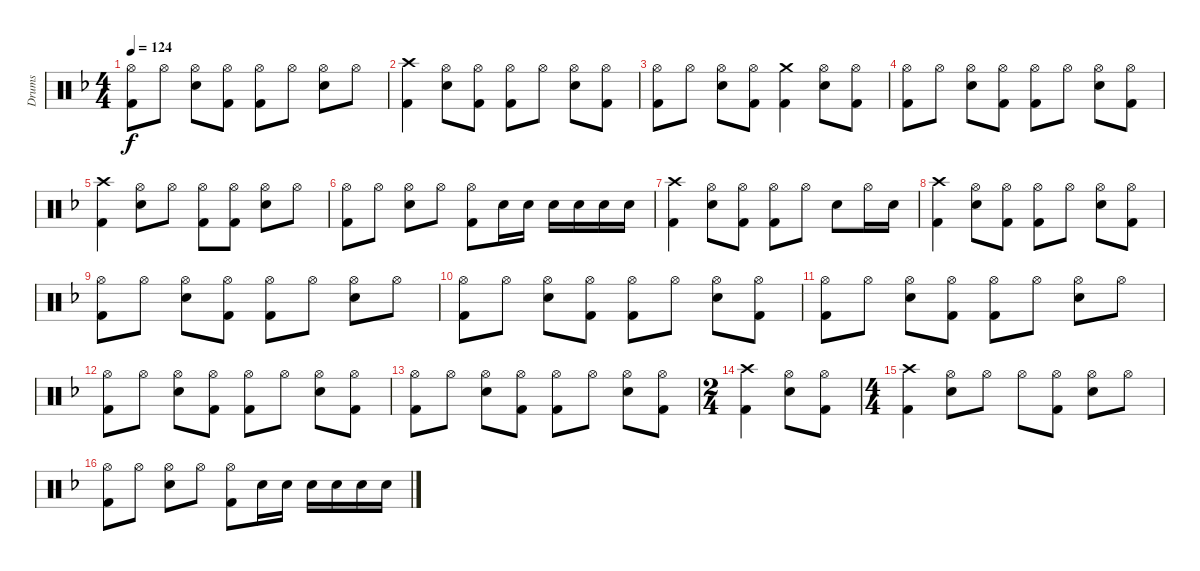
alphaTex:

\track ("Drums" "Drums") {instrument percussion}
\staff {score}
\articulation defaults
\ts (4 4)
\tempo 124
\clef neutral
\ks dminor
("Kick (hit) 2" "Hi-Hat (open)").8{dy f} "Hi-Hat (open)".8 ("Snare (hit) 2" "Hi-Hat (open)").8 ("Kick (hit) 2" "Hi-Hat (open)").8 ("Kick (hit) 2" "Hi-Hat (open)").8 "Hi-Hat (open)".8 ("Snare (hit) 2" "Hi-Hat (open)").8 "Hi-Hat (open)".8 |
("Kick (hit) 2" "Crash high (hit)").4 ("Snare (hit) 2" "Hi-Hat (open)").8 ("Kick (hit) 2" "Hi-Hat (open)").8 ("Kick (hit) 2" "Hi-Hat (open)").8 "Hi-Hat (open)".8 ("Snare (hit) 2" "Hi-Hat (open)").8 ("Kick (hit) 2" "Hi-Hat (open)").8 |
("Kick (hit) 2" "Hi-Hat (open)").8 "Hi-Hat (open)".8 ("Snare (hit) 2" "Hi-Hat (open)").8 ("Kick (hit) 2" "Hi-Hat (open)").8 ("Kick (hit) 2" "Crash medium (hit)").4 ("Snare (hit) 2" "Hi-Hat (open)").8 ("Kick (hit) 2" "Hi-Hat (open)").8 |
("Kick (hit) 2" "Hi-Hat (open)").8 "Hi-Hat (open)".8 ("Snare (hit) 2" "Hi-Hat (open)").8 ("Kick (hit) 2" "Hi-Hat (open)").8 ("Kick (hit) 2" "Hi-Hat (open)").8 "Hi-Hat (open)".8 ("Snare (hit) 2" "Hi-Hat (open)").8 ("Kick (hit) 2" "Hi-Hat (open)").8 |
("Kick (hit) 2" "Crash high (hit)").4 ("Snare (hit) 2" "Hi-Hat (open)").8 "Hi-Hat (open)".8 ("Kick (hit) 2" "Hi-Hat (open)").8 ("Kick (hit) 2" "Hi-Hat (open)").8 ("Snare (hit) 2" "Hi-Hat (open)").8 "Hi-Hat (open)".8 |
("Kick (hit) 2" "Hi-Hat (open)").8 "Hi-Hat (open)".8 ("Snare (hit) 2" "Hi-Hat (open)").8 "Hi-Hat (open)".8 ("Kick (hit) 2" "Hi-Hat (open)").8 "Snare (hit) 2".16 "Snare (hit) 2".16 "Snare (hit) 2".16 "Snare (hit) 2".16 "Snare (hit) 2".16 "Snare (hit) 2".16 |
("Kick (hit) 2" "Crash high (hit)").4 ("Snare (hit) 2" "Hi-Hat (open)").8 ("Kick (hit) 2" "Hi-Hat (open)").8 ("Kick (hit) 2" "Hi-Hat (open)").8 "Hi-Hat (open)".8 "Snare (hit) 2".8 "Hi-Hat (open)".16 "Snare (hit) 2".16 |
("Kick (hit) 2" "Crash high (hit)").4 ("Snare (hit) 2" "Hi-Hat (open)").8 ("Kick (hit) 2" "Hi-Hat (open)").8 ("Kick (hit) 2" "Hi-Hat (open)").8 "Hi-Hat (open)".8 ("Snare (hit) 2" "Hi-Hat (open)").8 ("Kick (hit) 2" "Hi-Hat (open)").8 |
("Kick (hit) 2" "Hi-Hat (open)").8 "Hi-Hat (open)".8 ("Snare (hit) 2" "Hi-Hat (open)").8 ("Kick (hit) 2" "Hi-Hat (open)").8 ("Kick (hit) 2" "Hi-Hat (open)").8 "Hi-Hat (open)".8 ("Snare (hit) 2" "Hi-Hat (open)").8 "Hi-Hat (open)".8 |
("Kick (hit) 2" "Hi-Hat (open)").8 "Hi-Hat (open)".8 ("Snare (hit) 2" "Hi-Hat (open)").8 ("Kick (hit) 2" "Hi-Hat (open)").8 ("Kick (hit) 2" "Hi-Hat (open)").8 "Hi-Hat (open)".8 ("Snare (hit) 2" "Hi-Hat (open)").8 ("Kick (hit) 2" "Hi-Hat (open)").8 |
("Kick (hit) 2" "Hi-Hat (open)").8 "Hi-Hat (open)".8 ("Snare (hit) 2" "Hi-Hat (open)").8 ("Kick (hit) 2" "Hi-Hat (open)").8 ("Kick (hit) 2" "Hi-Hat (open)").8 "Hi-Hat (open)".8 ("Snare (hit) 2" "Hi-Hat (open)").8 "Hi-Hat (open)".8 |
("Kick (hit) 2" "Hi-Hat (open)").8 "Hi-Hat (open)".8 ("Snare (hit) 2" "Hi-Hat (open)").8 ("Kick (hit) 2" "Hi-Hat (open)").8 ("Kick (hit) 2" "Hi-Hat (open)").8 "Hi-Hat (open)".8 ("Snare (hit) 2" "Hi-Hat (open)").8 ("Kick (hit) 2" "Hi-Hat (open)").8 |
("Kick (hit) 2" "Hi-Hat (open)").8 "Hi-Hat (open)".8 ("Snare (hit) 2" "Hi-Hat (open)").8 ("Kick (hit) 2" "Hi-Hat (open)").8 ("Kick (hit) 2" "Hi-Hat (open)").8 "Hi-Hat (open)".8 ("Snare (hit) 2" "Hi-Hat (open)").8 ("Kick (hit) 2" "Hi-Hat (open)").8 |
\ts (2 4)
("Kick (hit) 2" "Crash high (hit)").4 ("Snare (hit) 2" "Hi-Hat (open)").8 ("Kick (hit) 2" "Hi-Hat (open)").8 |
\ts (4 4)
("Kick (hit) 2" "Crash high (hit)").4 ("Snare (hit) 2" "Hi-Hat (open)").8 "Hi-Hat (open)".8 "Hi-Hat (open)".8 ("Kick (hit) 2" "Hi-Hat (open)").8 ("Snare (hit) 2" "Hi-Hat (open)").8 "Hi-Hat (open)".8 |
("Kick (hit) 2" "Hi-Hat (open)").8 "Hi-Hat (open)".8 ("Snare (hit) 2" "Hi-Hat (open)").8 "Hi-Hat (open)".8 ("Kick (hit) 2" "Hi-Hat (open)").8 "Snare (hit) 2".16 "Snare (hit) 2".16 "Snare (hit) 2".16 "Snare (hit) 2".16 "Snare (hit) 2".16 "Snare (hit) 2".16
